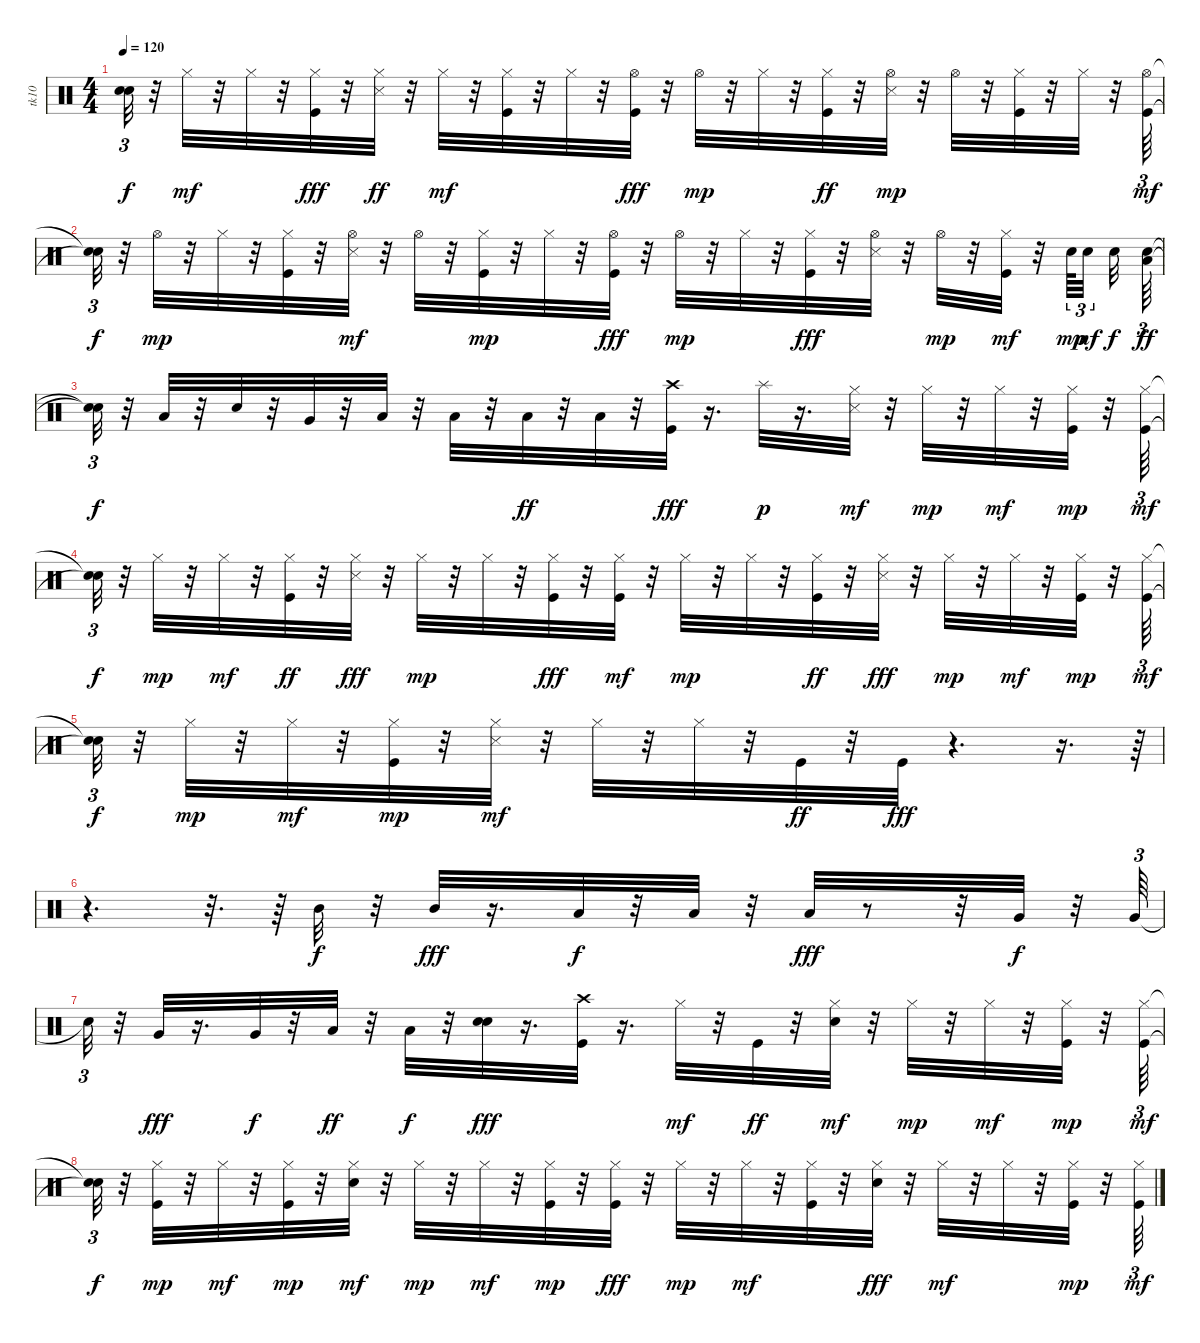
\track ("tk10" "tk10") {instrument percussion}
\staff {score}
\articulation defaults
\ts (4 4)
\tempo 120
\clef neutral
\ks c
("Snare (hit)"{t} "Snare (hit)"{t}).32{tu (3 2) dy f} r.32 "Hi-Hat (closed)".32{dy mf} r.32 "Hi-Hat (closed)".32 r.32 ("Hi-Hat (closed)" "Kick (hit)").32{dy fff} r.32 ("Hi-Hat (closed)" "Snare (side stick) 3").32{dy ff} r.32 "Hi-Hat (closed)".32{dy mf} r.32 ("Kick (hit)" "Hi-Hat (closed)").32 r.32 "Hi-Hat (closed)".32 r.32 ("Hi-Hat (open)" "Kick (hit)").32{dy fff} r.32 "Hi-Hat (open)".32{dy mp} r.32 "Hi-Hat (closed)".32 r.32 ("Hi-Hat (closed)" "Kick (hit)").32{dy ff} r.32 ("Snare (side stick) 3" "Hi-Hat (open)").32{dy mp} r.32 "Hi-Hat (open)".32 r.32 ("Kick (hit)" "Hi-Hat (closed)").32 r.32 "Hi-Hat (closed)".32 r.32 ("Kick (hit)" "Hi-Hat (open)").64{tu (3 2) dy mf} |
("Snare (hit)"{t} "Snare (hit)"{t}).32{tu (3 2) dy f} r.32 "Hi-Hat (open)".32{dy mp} r.32 "Hi-Hat (closed)".32 r.32 ("Kick (hit)" "Hi-Hat (closed)").32 r.32 ("Snare (side stick) 3" "Hi-Hat (open)").32{dy mf} r.32 "Hi-Hat (open)".32 r.32 ("Kick (hit)" "Hi-Hat (closed)").32{dy mp} r.32 "Hi-Hat (closed)".32 r.32 ("Hi-Hat (open)" "Kick (hit)").32{dy fff} r.32 "Hi-Hat (open)".32{dy mp} r.32 "Hi-Hat (closed)".32 r.32 ("Hi-Hat (closed)" "Kick (hit)").32{dy fff} r.32 ("Hi-Hat (open)" "Snare (side stick) 3").32 r.32 "Hi-Hat (open)".32{dy mp} r.32 ("Kick (hit)" "Hi-Hat (closed)").32{dy mf} r.32 "Snare (hit) 2".64{tu (3 2) dy mp} "Snare (hit) 2".32{tu (3 2) dy mf beam splitsecondary} "Snare (hit) 2".32{dy f} ("Snare (hit) 2" "Low Tom (hit)").64{tu (3 2) dy ff} |
("Snare (hit)"{t} "Snare (hit)"{t}).32{tu (3 2) dy f} r.32 "Low Tom (hit)".32 r.32 "Snare (hit) 2".32 r.32 "Very Low Tom (hit)".32 r.32 "Low Tom (hit)".32 r.32 "Low Tom (hit)".32 r.32 "Low Floor Tom (hit)".32{dy ff} r.32 "Low Floor Tom (hit)".32 r.32 ("Kick (hit)" "Crash high (hit)").32{dy fff} r.16{d} "Splash (hit)".32{dy p} r.16{d} ("Snare (side stick) 3" "Hi-Hat (closed)").32{dy mf} r.32 "Hi-Hat (closed)".32{dy mp} r.32 "Hi-Hat (closed)".32{dy mf} r.32 ("Kick (hit)" "Hi-Hat (closed)").32{dy mp} r.32 ("Kick (hit)" "Hi-Hat (closed)").64{tu (3 2) dy mf} |
("Snare (hit)"{t} "Snare (hit)"{t}).32{tu (3 2) dy f} r.32 "Hi-Hat (closed)".32{dy mp} r.32 "Hi-Hat (closed)".32{dy mf} r.32 ("Hi-Hat (closed)" "Kick (hit)").32{dy ff} r.32 ("Hi-Hat (closed)" "Snare (side stick) 3").32{dy fff} r.32 "Hi-Hat (closed)".32{dy mp} r.32 "Hi-Hat (closed)".32 r.32 ("Hi-Hat (closed)" "Kick (hit)").32{dy fff} r.32 ("Kick (hit)" "Hi-Hat (closed)").32{dy mf} r.32 "Hi-Hat (closed)".32{dy mp} r.32 "Hi-Hat (closed)".32 r.32 ("Hi-Hat (closed)" "Kick (hit)").32{dy ff} r.32 ("Hi-Hat (closed)" "Snare (side stick) 3").32{dy fff} r.32 "Hi-Hat (closed)".32{dy mp} r.32 "Hi-Hat (closed)".32{dy mf} r.32 ("Kick (hit)" "Hi-Hat (closed)").32{dy mp} r.32 ("Kick (hit)" "Hi-Hat (closed)").64{tu (3 2) dy mf} |
("Snare (hit)"{t} "Snare (hit)"{t}).32{tu (3 2) dy f} r.32 "Hi-Hat (closed)".32{dy mp} r.32 "Hi-Hat (closed)".32{dy mf} r.32 ("Kick (hit)" "Hi-Hat (closed)").32{dy mp} r.32 ("Snare (side stick) 3" "Hi-Hat (closed)").32{dy mf} r.32 "Hi-Hat (closed)".32 r.32 "Hi-Hat (closed)".32 r.32 "Kick (hit)".32{dy ff} r.32 "Kick (hit)".32{dy fff} r.4{d} r.16{d} r.64{tu (3 2)} |
r.4{d} r.32{d} r.64 "Mid Tom (hit)".32{dy f} r.32 "Mid Tom (hit)".32{dy fff} r.16{d} "Low Tom (hit)".32{dy f} r.32 "Low Tom (hit)".32 r.32 "Low Tom (hit)".32{dy fff} r.8 r.32 "Very Low Tom (hit)".32{dy f} r.32 "Very Low Tom (hit)".64{tu (3 2)} |
"Snare (hit)"{t}.32{tu (3 2)} r.32 "Very Low Tom (hit)".32{dy fff} r.16{d} "Very Low Tom (hit)".32{dy f} r.32 "Low Floor Tom (hit)".32{dy ff} r.32 "Low Floor Tom (hit)".32{dy f} r.32 ("Snare (hit) 2" "Snare (hit) 2").32{dy fff} r.16{d} ("Crash high (hit)" "Kick (hit)").32 r.16{d} "Hi-Hat (closed)".32{dy mf} r.32 "Kick (hit)".32{dy ff} r.32 ("Snare (hit) 2" "Hi-Hat (closed)").32{dy mf} r.32 "Hi-Hat (closed)".32{dy mp} r.32 "Hi-Hat (closed)".32{dy mf} r.32 ("Kick (hit)" "Hi-Hat (closed)").32{dy mp} r.32 ("Kick (hit)" "Hi-Hat (closed)").64{tu (3 2) dy mf} |
("Snare (hit)"{t} "Snare (hit)"{t}).32{tu (3 2) dy f} r.32 ("Kick (hit)" "Hi-Hat (closed)").32{dy mp} r.32 "Hi-Hat (closed)".32{dy mf} r.32 ("Kick (hit)" "Hi-Hat (closed)").32{dy mp} r.32 ("Snare (hit) 2" "Hi-Hat (closed)").32{dy mf} r.32 "Hi-Hat (closed)".32{dy mp} r.32 "Hi-Hat (closed)".32{dy mf} r.32 ("Kick (hit)" "Hi-Hat (closed)").32{dy mp} r.32 ("Hi-Hat (closed)" "Kick (hit)").32{dy fff} r.32 "Hi-Hat (closed)".32{dy mp} r.32 "Hi-Hat (closed)".32{dy mf} r.32 ("Kick (hit)" "Hi-Hat (closed)").32 r.32 ("Hi-Hat (closed)" "Snare (hit) 2").32{dy fff} r.32 "Hi-Hat (closed)".32{dy mf} r.32 "Hi-Hat (closed)".32 r.32 ("Kick (hit)" "Hi-Hat (closed)").32{dy mp} r.32 ("Kick (hit)" "Hi-Hat (closed)").64{tu (3 2) dy mf}
